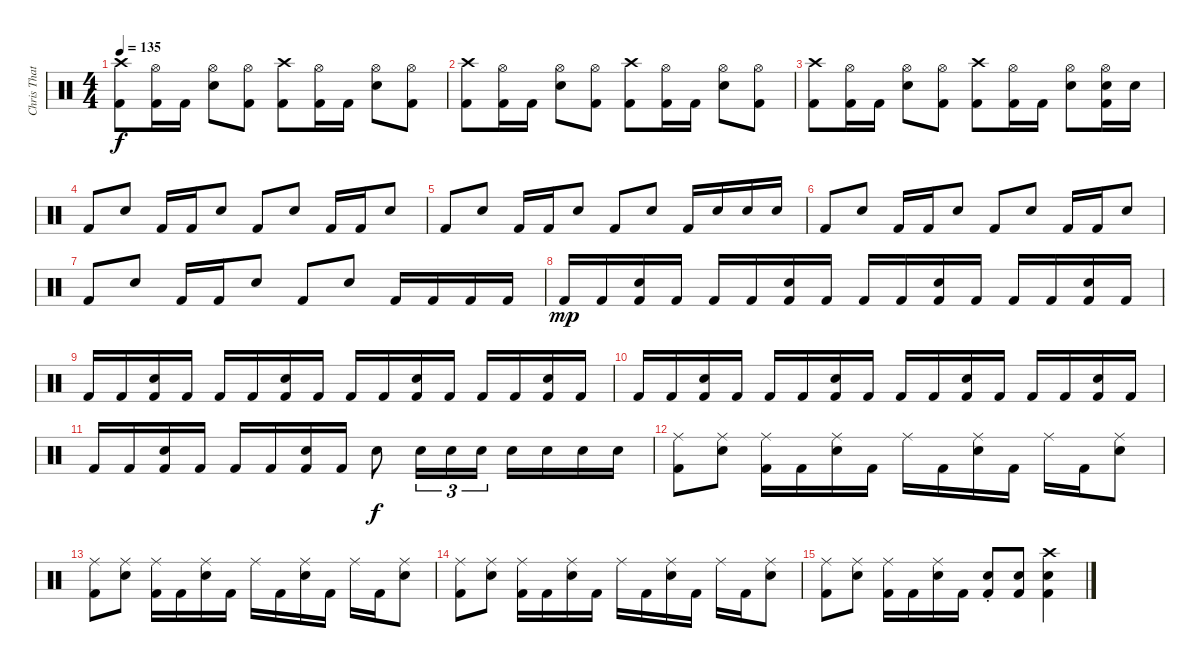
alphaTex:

\track ("Chris Thatcher" "Chris That") {instrument percussion}
\staff {score}
\articulation defaults
\ts (4 4)
\tempo 135
\clef neutral
\ks c
("Crash high (hit)" "Kick (hit) 2").8{dy f} ("Hi-Hat (open)" "Kick (hit) 2").16 "Kick (hit) 2".16 ("Hi-Hat (open)" "Electric Snare (hit)").8 ("Hi-Hat (open)" "Kick (hit) 2").8 ("Crash high (hit)" "Kick (hit) 2").8 ("Hi-Hat (open)" "Kick (hit) 2").16 "Kick (hit) 2".16 ("Hi-Hat (open)" "Electric Snare (hit)").8 ("Hi-Hat (open)" "Kick (hit) 2").8 |
("Crash high (hit)" "Kick (hit) 2").8 ("Hi-Hat (open)" "Kick (hit) 2").16 "Kick (hit) 2".16 ("Hi-Hat (open)" "Electric Snare (hit)").8 ("Hi-Hat (open)" "Kick (hit) 2").8 ("Crash high (hit)" "Kick (hit) 2").8 ("Hi-Hat (open)" "Kick (hit) 2").16 "Kick (hit) 2".16 ("Hi-Hat (open)" "Electric Snare (hit)").8 ("Hi-Hat (open)" "Kick (hit) 2").8 |
("Crash high (hit)" "Kick (hit) 2").8 ("Hi-Hat (open)" "Kick (hit) 2").16 "Kick (hit) 2".16 ("Hi-Hat (open)" "Electric Snare (hit)").8 ("Hi-Hat (open)" "Kick (hit) 2").8 ("Crash high (hit)" "Kick (hit) 2").8 ("Hi-Hat (open)" "Kick (hit) 2").16 "Kick (hit) 2".16 ("Hi-Hat (open)" "Electric Snare (hit)").8 ("Hi-Hat (open)" "Electric Snare (hit)" "Kick (hit) 2").16 "Electric Snare (hit)".16 |
"Kick (hit) 2".8 "Electric Snare (hit)".8 "Kick (hit) 2".16 "Kick (hit) 2".16 "Electric Snare (hit)".8 "Kick (hit) 2".8 "Electric Snare (hit)".8 "Kick (hit) 2".16 "Kick (hit) 2".16 "Electric Snare (hit)".8 |
"Kick (hit) 2".8 "Electric Snare (hit)".8 "Kick (hit) 2".16 "Kick (hit) 2".16 "Electric Snare (hit)".8 "Kick (hit) 2".8 "Electric Snare (hit)".8 "Kick (hit) 2".16 "Electric Snare (hit)".16 "Electric Snare (hit)".16 "Electric Snare (hit)".16 |
"Kick (hit) 2".8 "Electric Snare (hit)".8 "Kick (hit) 2".16 "Kick (hit) 2".16 "Electric Snare (hit)".8 "Kick (hit) 2".8 "Electric Snare (hit)".8 "Kick (hit) 2".16 "Kick (hit) 2".16 "Electric Snare (hit)".8 |
"Kick (hit) 2".8 "Electric Snare (hit)".8 "Kick (hit) 2".16 "Kick (hit) 2".16 "Electric Snare (hit)".8 "Kick (hit) 2".8 "Electric Snare (hit)".8 "Kick (hit) 2".16 "Kick (hit) 2".16 "Kick (hit) 2".16 "Kick (hit) 2".16 |
"Kick (hit) 2".16{dy mp} "Kick (hit) 2".16 ("Electric Snare (hit)" "Kick (hit) 2").16 "Kick (hit) 2".16 "Kick (hit) 2".16 "Kick (hit) 2".16 ("Electric Snare (hit)" "Kick (hit) 2").16 "Kick (hit) 2".16 "Kick (hit) 2".16 "Kick (hit) 2".16 ("Electric Snare (hit)" "Kick (hit) 2").16 "Kick (hit) 2".16 "Kick (hit) 2".16 "Kick (hit) 2".16 ("Electric Snare (hit)" "Kick (hit) 2").16 "Kick (hit) 2".16 |
"Kick (hit) 2".16 "Kick (hit) 2".16 ("Electric Snare (hit)" "Kick (hit) 2").16 "Kick (hit) 2".16 "Kick (hit) 2".16 "Kick (hit) 2".16 ("Electric Snare (hit)" "Kick (hit) 2").16 "Kick (hit) 2".16 "Kick (hit) 2".16 "Kick (hit) 2".16 ("Electric Snare (hit)" "Kick (hit) 2").16 "Kick (hit) 2".16 "Kick (hit) 2".16 "Kick (hit) 2".16 ("Electric Snare (hit)" "Kick (hit) 2").16 "Kick (hit) 2".16 |
"Kick (hit) 2".16 "Kick (hit) 2".16 ("Electric Snare (hit)" "Kick (hit) 2").16 "Kick (hit) 2".16 "Kick (hit) 2".16 "Kick (hit) 2".16 ("Electric Snare (hit)" "Kick (hit) 2").16 "Kick (hit) 2".16 "Kick (hit) 2".16 "Kick (hit) 2".16 ("Electric Snare (hit)" "Kick (hit) 2").16 "Kick (hit) 2".16 "Kick (hit) 2".16 "Kick (hit) 2".16 ("Electric Snare (hit)" "Kick (hit) 2").16 "Kick (hit) 2".16 |
"Kick (hit) 2".16 "Kick (hit) 2".16 ("Electric Snare (hit)" "Kick (hit) 2").16 "Kick (hit) 2".16 "Kick (hit) 2".16 "Kick (hit) 2".16 ("Electric Snare (hit)" "Kick (hit) 2").16 "Kick (hit) 2".16 "Electric Snare (hit)".8{dy f} "Electric Snare (hit)".16{tu (3 2)} "Electric Snare (hit)".16{tu (3 2)} "Electric Snare (hit)".16{tu (3 2)} "Electric Snare (hit)".16 "Electric Snare (hit)".16 "Electric Snare (hit)".16 "Electric Snare (hit)".16 |
("Ride (middle)" "Kick (hit) 2").8 ("Ride (middle)" "Electric Snare (hit)").8 ("Ride (middle)" "Kick (hit) 2").16 "Kick (hit) 2".16 ("Ride (middle)" "Electric Snare (hit)").16 "Kick (hit) 2".16 "Ride (middle)".16 "Kick (hit) 2".16 ("Ride (middle)" "Electric Snare (hit)").16 "Kick (hit) 2".16 "Ride (middle)".16 "Kick (hit) 2".16 ("Ride (middle)" "Electric Snare (hit)").8 |
("Ride (middle)" "Kick (hit) 2").8 ("Ride (middle)" "Electric Snare (hit)").8 ("Ride (middle)" "Kick (hit) 2").16 "Kick (hit) 2".16 ("Ride (middle)" "Electric Snare (hit)").16 "Kick (hit) 2".16 "Ride (middle)".16 "Kick (hit) 2".16 ("Ride (middle)" "Electric Snare (hit)").16 "Kick (hit) 2".16 "Ride (middle)".16 "Kick (hit) 2".16 ("Ride (middle)" "Electric Snare (hit)").8 |
("Ride (middle)" "Kick (hit) 2").8 ("Ride (middle)" "Electric Snare (hit)").8 ("Ride (middle)" "Kick (hit) 2").16 "Kick (hit) 2".16 ("Ride (middle)" "Electric Snare (hit)").16 "Kick (hit) 2".16 "Ride (middle)".16 "Kick (hit) 2".16 ("Ride (middle)" "Electric Snare (hit)").16 "Kick (hit) 2".16 "Ride (middle)".16 "Kick (hit) 2".16 ("Ride (middle)" "Electric Snare (hit)").8 |
("Ride (middle)" "Kick (hit) 2").8 ("Ride (middle)" "Electric Snare (hit)").8 ("Ride (middle)" "Kick (hit) 2").16 "Kick (hit) 2".16 ("Ride (middle)" "Electric Snare (hit)").16 "Kick (hit) 2".16 ("Electric Snare (hit)"{st} "Kick (hit) 2"{st}).8 ("Electric Snare (hit)" "Kick (hit) 2").8 ("Crash high (hit)" "Electric Snare (hit)" "Kick (hit) 2").4
